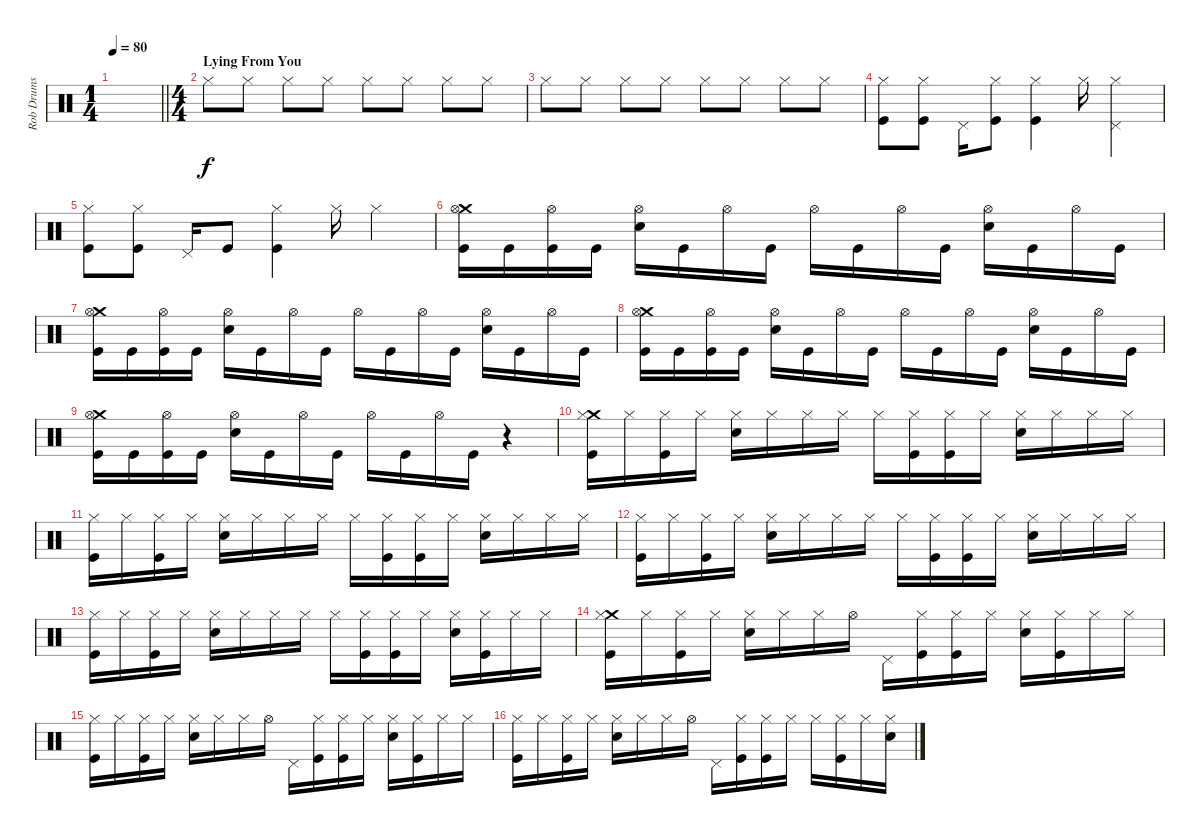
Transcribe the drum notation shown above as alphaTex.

\track ("Rob Drums" "Rob Drums") {instrument percussion}
\staff {score}
\articulation defaults
\ts (1 4)
\tempo 80
\clef neutral
\barLineRight lightlight
\ks c
|
\ts (4 4)
\section ("" "Lying From You")
"Hi-Hat (closed)".8 "Hi-Hat (closed)".8 "Hi-Hat (closed)".8 "Hi-Hat (closed)".8 "Hi-Hat (closed)".8 "Hi-Hat (closed)".8 "Hi-Hat (closed)".8 "Hi-Hat (closed)".8 |
"Hi-Hat (closed)".8 "Hi-Hat (closed)".8 "Hi-Hat (closed)".8 "Hi-Hat (closed)".8 "Hi-Hat (closed)".8 "Hi-Hat (closed)".8 "Hi-Hat (closed)".8 "Hi-Hat (closed)".8 |
("Hi-Hat (closed)" "Kick (hit)").8 ("Hi-Hat (closed)" "Kick (hit)").8 "Pedal Hi-Hat (hit)".16 ("Hi-Hat (closed)" "Kick (hit)").8 ("Hi-Hat (closed)" "Kick (hit)").4 "Hi-Hat (closed)".16 ("Hi-Hat (closed)" "Pedal Hi-Hat (hit)").4 |
("Hi-Hat (closed)" "Kick (hit)").8 ("Hi-Hat (closed)" "Kick (hit)").8 "Pedal Hi-Hat (hit)".16 "Kick (hit)".8 ("Hi-Hat (closed)" "Kick (hit)").4 "Hi-Hat (closed)".16 "Hi-Hat (closed)".4 |
("Crash medium (hit)" "Hi-Hat (open)" "Kick (hit)").16 "Kick (hit)".16 ("Hi-Hat (open)" "Kick (hit)").16 "Kick (hit)".16 ("Hi-Hat (open)" "Snare (hit) 2").16 "Kick (hit)".16 "Hi-Hat (open)".16 "Kick (hit)".16 "Hi-Hat (open)".16 "Kick (hit)".16 "Hi-Hat (open)".16 "Kick (hit)".16 ("Hi-Hat (open)" "Snare (hit) 2").16 "Kick (hit)".16 "Hi-Hat (open)".16 "Kick (hit)".16 |
("Crash medium (hit)" "Hi-Hat (open)" "Kick (hit)").16 "Kick (hit)".16 ("Hi-Hat (open)" "Kick (hit)").16 "Kick (hit)".16 ("Hi-Hat (open)" "Snare (hit) 2").16 "Kick (hit)".16 "Hi-Hat (open)".16 "Kick (hit)".16 "Hi-Hat (open)".16 "Kick (hit)".16 "Hi-Hat (open)".16 "Kick (hit)".16 ("Hi-Hat (open)" "Snare (hit) 2").16 "Kick (hit)".16 "Hi-Hat (open)".16 "Kick (hit)".16 |
("Crash medium (hit)" "Hi-Hat (open)" "Kick (hit)").16 "Kick (hit)".16 ("Hi-Hat (open)" "Kick (hit)").16 "Kick (hit)".16 ("Hi-Hat (open)" "Snare (hit) 2").16 "Kick (hit)".16 "Hi-Hat (open)".16 "Kick (hit)".16 "Hi-Hat (open)".16 "Kick (hit)".16 "Hi-Hat (open)".16 "Kick (hit)".16 ("Hi-Hat (open)" "Snare (hit) 2").16 "Kick (hit)".16 "Hi-Hat (open)".16 "Kick (hit)".16 |
("Crash medium (hit)" "Hi-Hat (open)" "Kick (hit)").16 "Kick (hit)".16 ("Hi-Hat (open)" "Kick (hit)").16 "Kick (hit)".16 ("Hi-Hat (open)" "Snare (hit) 2").16 "Kick (hit)".16 "Hi-Hat (open)".16 "Kick (hit)".16 "Hi-Hat (open)".16 "Kick (hit)".16 "Hi-Hat (open)".16 "Kick (hit)".16 r.4 |
("Crash medium (hit)" "Hi-Hat (closed)" "Kick (hit)").16 "Hi-Hat (closed)".16 ("Hi-Hat (closed)" "Kick (hit)").16 "Hi-Hat (closed)".16 ("Hi-Hat (closed)" "Snare (hit) 2").16 "Hi-Hat (closed)".16 "Hi-Hat (closed)".16 "Hi-Hat (closed)".16 "Hi-Hat (closed)".16 ("Hi-Hat (closed)" "Kick (hit)").16 ("Hi-Hat (closed)" "Kick (hit)").16 "Hi-Hat (closed)".16 ("Hi-Hat (closed)" "Snare (hit) 2").16 "Hi-Hat (closed)".16 "Hi-Hat (closed)".16 "Hi-Hat (closed)".16 |
("Hi-Hat (closed)" "Kick (hit)").16 "Hi-Hat (closed)".16 ("Hi-Hat (closed)" "Kick (hit)").16 "Hi-Hat (closed)".16 ("Hi-Hat (closed)" "Snare (hit) 2").16 "Hi-Hat (closed)".16 "Hi-Hat (closed)".16 "Hi-Hat (closed)".16 "Hi-Hat (closed)".16 ("Hi-Hat (closed)" "Kick (hit)").16 ("Hi-Hat (closed)" "Kick (hit)").16 "Hi-Hat (closed)".16 ("Hi-Hat (closed)" "Snare (hit) 2").16 "Hi-Hat (closed)".16 "Hi-Hat (closed)".16 "Hi-Hat (closed)".16 |
("Hi-Hat (closed)" "Kick (hit)").16 "Hi-Hat (closed)".16 ("Hi-Hat (closed)" "Kick (hit)").16 "Hi-Hat (closed)".16 ("Hi-Hat (closed)" "Snare (hit) 2").16 "Hi-Hat (closed)".16 "Hi-Hat (closed)".16 "Hi-Hat (closed)".16 "Hi-Hat (closed)".16 ("Hi-Hat (closed)" "Kick (hit)").16 ("Hi-Hat (closed)" "Kick (hit)").16 "Hi-Hat (closed)".16 ("Hi-Hat (closed)" "Snare (hit) 2").16 "Hi-Hat (closed)".16 "Hi-Hat (closed)".16 "Hi-Hat (closed)".16 |
("Hi-Hat (closed)" "Kick (hit)").16 "Hi-Hat (closed)".16 ("Hi-Hat (closed)" "Kick (hit)").16 "Hi-Hat (closed)".16 ("Hi-Hat (closed)" "Snare (hit) 2").16 "Hi-Hat (closed)".16 "Hi-Hat (closed)".16 "Hi-Hat (closed)".16 "Hi-Hat (closed)".16 ("Hi-Hat (closed)" "Kick (hit)").16 ("Hi-Hat (closed)" "Kick (hit)").16 "Hi-Hat (closed)".16 ("Hi-Hat (closed)" "Snare (hit) 2").16 ("Hi-Hat (closed)" "Kick (hit)").16 "Hi-Hat (closed)".16 "Hi-Hat (closed)".16 |
("Crash medium (hit)" "Hi-Hat (closed)" "Kick (hit)").16 "Hi-Hat (closed)".16 ("Hi-Hat (closed)" "Kick (hit)").16 "Hi-Hat (closed)".16 ("Hi-Hat (closed)" "Snare (hit) 2").16 "Hi-Hat (closed)".16 "Hi-Hat (closed)".16 "Hi-Hat (open)".16 "Pedal Hi-Hat (hit)".16 ("Hi-Hat (closed)" "Kick (hit)").16 ("Hi-Hat (closed)" "Kick (hit)").16 "Hi-Hat (closed)".16 ("Hi-Hat (closed)" "Snare (hit) 2").16 ("Hi-Hat (closed)" "Kick (hit)").16 "Hi-Hat (closed)".16 "Hi-Hat (closed)".16 |
("Hi-Hat (closed)" "Kick (hit)").16 "Hi-Hat (closed)".16 ("Hi-Hat (closed)" "Kick (hit)").16 "Hi-Hat (closed)".16 ("Hi-Hat (closed)" "Snare (hit) 2").16 "Hi-Hat (closed)".16 "Hi-Hat (closed)".16 "Hi-Hat (open)".16 "Pedal Hi-Hat (hit)".16 ("Hi-Hat (closed)" "Kick (hit)").16 ("Hi-Hat (closed)" "Kick (hit)").16 "Hi-Hat (closed)".16 ("Hi-Hat (closed)" "Snare (hit) 2").16 ("Hi-Hat (closed)" "Kick (hit)").16 "Hi-Hat (closed)".16 "Hi-Hat (closed)".16 |
("Hi-Hat (closed)" "Kick (hit)").16 "Hi-Hat (closed)".16 ("Hi-Hat (closed)" "Kick (hit)").16 "Hi-Hat (closed)".16 ("Hi-Hat (closed)" "Snare (hit) 2").16 "Hi-Hat (closed)".16 "Hi-Hat (closed)".16 "Hi-Hat (open)".16 "Pedal Hi-Hat (hit)".16 ("Hi-Hat (closed)" "Kick (hit)").16 ("Hi-Hat (closed)" "Kick (hit)").16 "Hi-Hat (closed)".16 "Hi-Hat (closed)".16 ("Hi-Hat (closed)" "Kick (hit)").16 "Hi-Hat (closed)".16 ("Hi-Hat (closed)" "Snare (hit) 2").16
